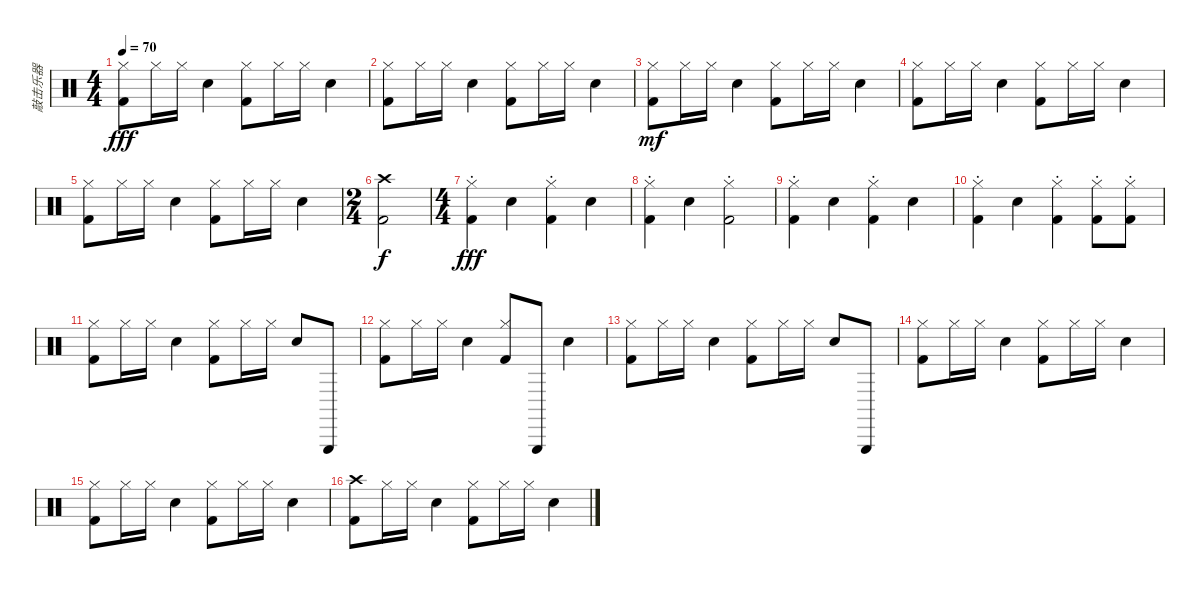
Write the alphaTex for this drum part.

\track ("敲击乐器" "敲击乐器") {instrument percussion}
\staff {score}
\articulation defaults
\ts (4 4)
\tempo 70
\clef neutral
\ks c
("Hi-Hat (closed)" "Kick (hit) 2").8{dy fff} "Hi-Hat (closed)".16 "Hi-Hat (closed)".16 "Electric Snare (hit)".4 ("Hi-Hat (closed)" "Kick (hit) 2").8 "Hi-Hat (closed)".16 "Hi-Hat (closed)".16 "Electric Snare (hit)".4 |
("Hi-Hat (closed)" "Kick (hit) 2").8 "Hi-Hat (closed)".16 "Hi-Hat (closed)".16 "Electric Snare (hit)".4 ("Hi-Hat (closed)" "Kick (hit) 2").8 "Hi-Hat (closed)".16 "Hi-Hat (closed)".16 "Electric Snare (hit)".4 |
("Hi-Hat (closed)" "Kick (hit) 2").8{dy mf} "Hi-Hat (closed)".16 "Hi-Hat (closed)".16 "Electric Snare (hit)".4 ("Hi-Hat (closed)" "Kick (hit) 2").8 "Hi-Hat (closed)".16 "Hi-Hat (closed)".16 "Electric Snare (hit)".4 |
("Hi-Hat (closed)" "Kick (hit) 2").8 "Hi-Hat (closed)".16 "Hi-Hat (closed)".16 "Electric Snare (hit)".4 ("Hi-Hat (closed)" "Kick (hit) 2").8 "Hi-Hat (closed)".16 "Hi-Hat (closed)".16 "Electric Snare (hit)".4 |
("Hi-Hat (closed)" "Kick (hit) 2").8 "Hi-Hat (closed)".16 "Hi-Hat (closed)".16 "Electric Snare (hit)".4 ("Hi-Hat (closed)" "Kick (hit) 2").8 "Hi-Hat (closed)".16 "Hi-Hat (closed)".16 "Electric Snare (hit)".4 |
\ts (2 4)
("Crash high (hit)" "Kick (hit) 2").2{dy f} |
\ts (4 4)
("Hi-Hat (closed)" "Kick (hit) 2"{st}).4{dy fff} "Electric Snare (hit)".4 ("Hi-Hat (closed)" "Kick (hit) 2"{st}).4 "Electric Snare (hit)".4 |
("Hi-Hat (closed)" "Kick (hit) 2"{st}).4 "Electric Snare (hit)".4 ("Hi-Hat (closed)" "Kick (hit) 2"{st}).2 |
("Hi-Hat (closed)" "Kick (hit) 2"{st}).4 "Electric Snare (hit)".4 ("Hi-Hat (closed)" "Kick (hit) 2"{st}).4 "Electric Snare (hit)".4 |
("Hi-Hat (closed)" "Kick (hit) 2"{st}).4 "Electric Snare (hit)".4 ("Hi-Hat (closed)" "Kick (hit) 2"{st}).4 ("Hi-Hat (closed)" "Kick (hit) 2"{st}).8 ("Hi-Hat (closed)" "Kick (hit) 2"{st}).8 |
("Hi-Hat (closed)" "Kick (hit) 2").8 "Hi-Hat (closed)".16 "Hi-Hat (closed)".16 "Electric Snare (hit)".4 ("Hi-Hat (closed)" "Kick (hit) 2").8 "Hi-Hat (closed)".16 "Hi-Hat (closed)".16 "Electric Snare (hit)".8 "Triangle (hit)".8 |
("Hi-Hat (closed)" "Kick (hit) 2").8 "Hi-Hat (closed)".16 "Hi-Hat (closed)".16 "Electric Snare (hit)".4 ("Hi-Hat (closed)" "Kick (hit) 2").8 "Triangle (hit)".8 "Electric Snare (hit)".4 |
("Hi-Hat (closed)" "Kick (hit) 2").8 "Hi-Hat (closed)".16 "Hi-Hat (closed)".16 "Electric Snare (hit)".4 ("Hi-Hat (closed)" "Kick (hit) 2").8 "Hi-Hat (closed)".16 "Hi-Hat (closed)".16 "Electric Snare (hit)".8 "Triangle (hit)".8 |
("Hi-Hat (closed)" "Kick (hit) 2").8 "Hi-Hat (closed)".16 "Hi-Hat (closed)".16 "Electric Snare (hit)".4 ("Hi-Hat (closed)" "Kick (hit) 2").8 "Hi-Hat (closed)".16 "Hi-Hat (closed)".16 "Electric Snare (hit)".4 |
("Hi-Hat (closed)" "Kick (hit) 2").8 "Hi-Hat (closed)".16 "Hi-Hat (closed)".16 "Electric Snare (hit)".4 ("Hi-Hat (closed)" "Kick (hit) 2").8 "Hi-Hat (closed)".16 "Hi-Hat (closed)".16 "Electric Snare (hit)".4 |
("Crash high (hit)" "Kick (hit) 2").8 "Hi-Hat (closed)".16 "Hi-Hat (closed)".16 "Electric Snare (hit)".4 ("Hi-Hat (closed)" "Kick (hit) 2").8 "Hi-Hat (closed)".16 "Hi-Hat (closed)".16 "Electric Snare (hit)".4
